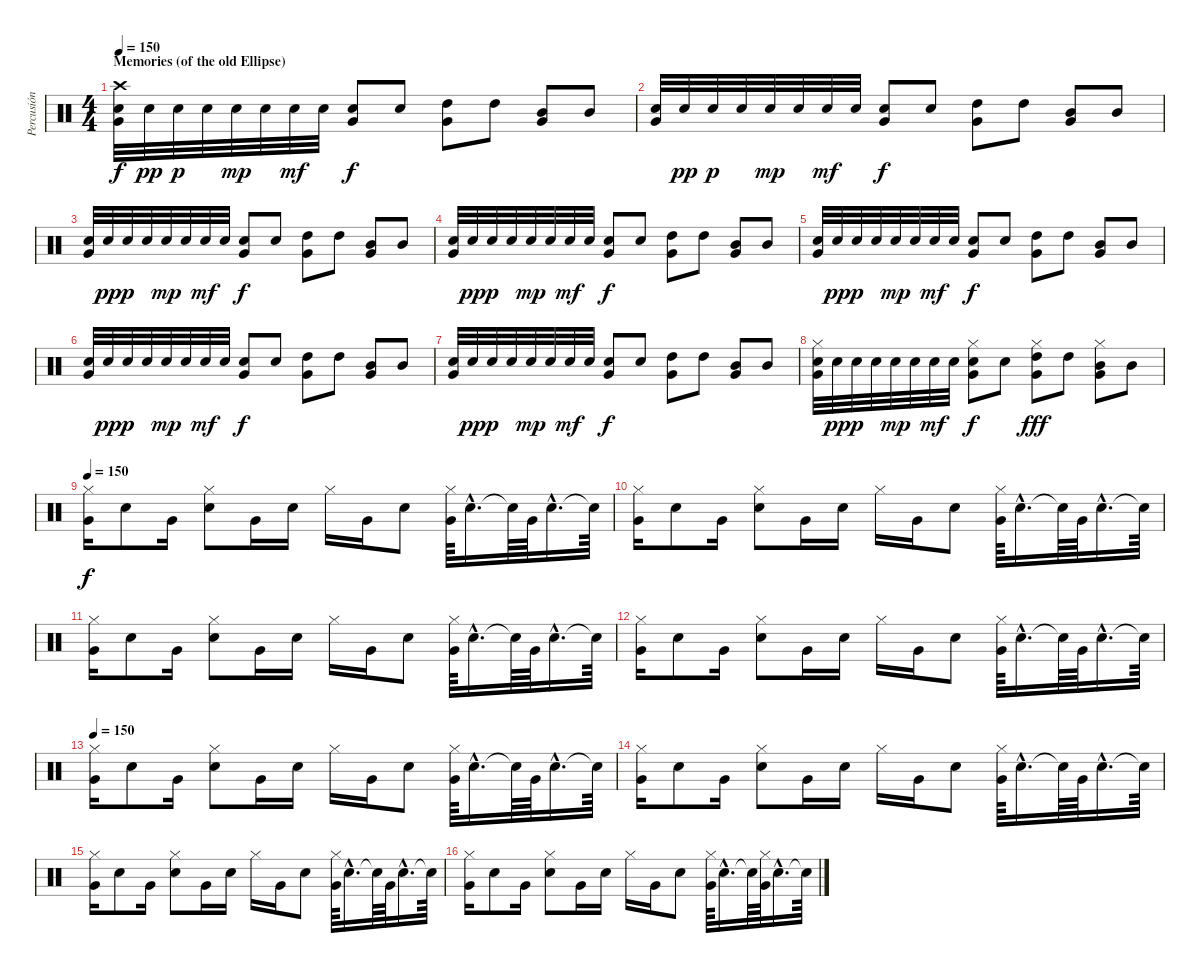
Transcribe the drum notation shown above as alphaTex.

\track ("Percusión" "Percusión") {instrument percussion}
\staff {score}
\articulation defaults
\ts (4 4)
\section ("" "Memories (of the old Ellipse)")
\tempo 150
\clef neutral
\ks c
("Crash high (hit)" "Electric Snare (hit)" "Very Low Tom (hit)").32{dy f} "Electric Snare (hit)".32{dy pp} "Electric Snare (hit)".32{dy p} "Electric Snare (hit)".32 "Electric Snare (hit)".32{dy mp} "Electric Snare (hit)".32 "Electric Snare (hit)".32{dy mf} "Electric Snare (hit)".32 ("Electric Snare (hit)" "Very Low Tom (hit)").8{dy f} "Electric Snare (hit)".8 ("High Tom (hit)" "Very Low Tom (hit)").8 "High Tom (hit)".8 ("Mid Tom (hit)" "Very Low Tom (hit)").8 "Mid Tom (hit)".8 |
("Electric Snare (hit)" "Very Low Tom (hit)").32 "Electric Snare (hit)".32{dy pp} "Electric Snare (hit)".32{dy p} "Electric Snare (hit)".32 "Electric Snare (hit)".32{dy mp} "Electric Snare (hit)".32 "Electric Snare (hit)".32{dy mf} "Electric Snare (hit)".32 ("Electric Snare (hit)" "Very Low Tom (hit)").8{dy f} "Electric Snare (hit)".8 ("High Tom (hit)" "Very Low Tom (hit)").8 "High Tom (hit)".8 ("Mid Tom (hit)" "Very Low Tom (hit)").8 "Mid Tom (hit)".8 |
("Electric Snare (hit)" "Very Low Tom (hit)").32 "Electric Snare (hit)".32{dy pp} "Electric Snare (hit)".32{dy p} "Electric Snare (hit)".32 "Electric Snare (hit)".32{dy mp} "Electric Snare (hit)".32 "Electric Snare (hit)".32{dy mf} "Electric Snare (hit)".32 ("Electric Snare (hit)" "Very Low Tom (hit)").8{dy f} "Electric Snare (hit)".8 ("High Tom (hit)" "Very Low Tom (hit)").8 "High Tom (hit)".8 ("Mid Tom (hit)" "Very Low Tom (hit)").8 "Mid Tom (hit)".8 |
("Electric Snare (hit)" "Very Low Tom (hit)").32 "Electric Snare (hit)".32{dy pp} "Electric Snare (hit)".32{dy p} "Electric Snare (hit)".32 "Electric Snare (hit)".32{dy mp} "Electric Snare (hit)".32 "Electric Snare (hit)".32{dy mf} "Electric Snare (hit)".32 ("Electric Snare (hit)" "Very Low Tom (hit)").8{dy f} "Electric Snare (hit)".8 ("High Tom (hit)" "Very Low Tom (hit)").8 "High Tom (hit)".8 ("Mid Tom (hit)" "Very Low Tom (hit)").8 "Mid Tom (hit)".8 |
("Electric Snare (hit)" "Very Low Tom (hit)").32 "Electric Snare (hit)".32{dy pp} "Electric Snare (hit)".32{dy p} "Electric Snare (hit)".32 "Electric Snare (hit)".32{dy mp} "Electric Snare (hit)".32 "Electric Snare (hit)".32{dy mf} "Electric Snare (hit)".32 ("Electric Snare (hit)" "Very Low Tom (hit)").8{dy f} "Electric Snare (hit)".8 ("High Tom (hit)" "Very Low Tom (hit)").8 "High Tom (hit)".8 ("Mid Tom (hit)" "Very Low Tom (hit)").8 "Mid Tom (hit)".8 |
("Electric Snare (hit)" "Very Low Tom (hit)").32 "Electric Snare (hit)".32{dy pp} "Electric Snare (hit)".32{dy p} "Electric Snare (hit)".32 "Electric Snare (hit)".32{dy mp} "Electric Snare (hit)".32 "Electric Snare (hit)".32{dy mf} "Electric Snare (hit)".32 ("Electric Snare (hit)" "Very Low Tom (hit)").8{dy f} "Electric Snare (hit)".8 ("High Tom (hit)" "Very Low Tom (hit)").8 "High Tom (hit)".8 ("Mid Tom (hit)" "Very Low Tom (hit)").8 "Mid Tom (hit)".8 |
("Electric Snare (hit)" "Very Low Tom (hit)").32 "Electric Snare (hit)".32{dy pp} "Electric Snare (hit)".32{dy p} "Electric Snare (hit)".32 "Electric Snare (hit)".32{dy mp} "Electric Snare (hit)".32 "Electric Snare (hit)".32{dy mf} "Electric Snare (hit)".32 ("Electric Snare (hit)" "Very Low Tom (hit)").8{dy f} "Electric Snare (hit)".8 ("High Tom (hit)" "Very Low Tom (hit)").8 "High Tom (hit)".8 ("Mid Tom (hit)" "Very Low Tom (hit)").8 "Mid Tom (hit)".8 |
("Hi-Hat (closed)" "Electric Snare (hit)" "Very Low Tom (hit)").32 "Electric Snare (hit)".32{dy pp} "Electric Snare (hit)".32{dy p} "Electric Snare (hit)".32 "Electric Snare (hit)".32{dy mp} "Electric Snare (hit)".32 "Electric Snare (hit)".32{dy mf} "Electric Snare (hit)".32 ("Hi-Hat (closed)" "Electric Snare (hit)" "Very Low Tom (hit)").8{dy f} "Electric Snare (hit)".8 ("Hi-Hat (closed)" "High Tom (hit)" "Very Low Tom (hit)").8{dy fff} "High Tom (hit)".8 ("Hi-Hat (closed)" "Mid Tom (hit)" "Very Low Tom (hit)").8 "Mid Tom (hit)".8 |
\tempo 150
("Hi-Hat (closed)" "Very Low Tom (hit)").16{dy f} "Electric Snare (hit)".8 "Very Low Tom (hit)".16 ("Hi-Hat (closed)" "Electric Snare (hit)").8 "Very Low Tom (hit)".16 "Electric Snare (hit)".16 "Hi-Hat (closed)".16 "Very Low Tom (hit)".16 "Electric Snare (hit)".8 ("Hi-Hat (closed)" "Very Low Tom (hit)").64 "Electric Snare (hit)"{hac}.16{d} "Snare (hit)"{t}.64 "Very Low Tom (hit)".64 "Electric Snare (hit)"{hac}.16{d} "Snare (hit)"{t}.64 |
("Hi-Hat (closed)" "Very Low Tom (hit)").16 "Electric Snare (hit)".8 "Very Low Tom (hit)".16 ("Hi-Hat (closed)" "Electric Snare (hit)").8 "Very Low Tom (hit)".16 "Electric Snare (hit)".16 "Hi-Hat (closed)".16 "Very Low Tom (hit)".16 "Electric Snare (hit)".8 ("Hi-Hat (closed)" "Very Low Tom (hit)").64 "Electric Snare (hit)"{hac}.16{d} "Snare (hit)"{t}.64 "Very Low Tom (hit)".64 "Electric Snare (hit)"{hac}.16{d} "Snare (hit)"{t}.64 |
("Hi-Hat (closed)" "Very Low Tom (hit)").16 "Electric Snare (hit)".8 "Very Low Tom (hit)".16 ("Hi-Hat (closed)" "Electric Snare (hit)").8 "Very Low Tom (hit)".16 "Electric Snare (hit)".16 "Hi-Hat (closed)".16 "Very Low Tom (hit)".16 "Electric Snare (hit)".8 ("Hi-Hat (closed)" "Very Low Tom (hit)").64 "Electric Snare (hit)"{hac}.16{d} "Snare (hit)"{t}.64 "Very Low Tom (hit)".64 "Electric Snare (hit)"{hac}.16{d} "Snare (hit)"{t}.64 |
("Hi-Hat (closed)" "Very Low Tom (hit)").16 "Electric Snare (hit)".8 "Very Low Tom (hit)".16 ("Hi-Hat (closed)" "Electric Snare (hit)").8 "Very Low Tom (hit)".16 "Electric Snare (hit)".16 "Hi-Hat (closed)".16 "Very Low Tom (hit)".16 "Electric Snare (hit)".8 ("Hi-Hat (closed)" "Very Low Tom (hit)").64 "Electric Snare (hit)"{hac}.16{d} "Snare (hit)"{t}.64 "Very Low Tom (hit)".64 "Electric Snare (hit)"{hac}.16{d} "Snare (hit)"{t}.64 |
\tempo 150
("Hi-Hat (closed)" "Very Low Tom (hit)").16 "Electric Snare (hit)".8 "Very Low Tom (hit)".16 ("Hi-Hat (closed)" "Electric Snare (hit)").8 "Very Low Tom (hit)".16 "Electric Snare (hit)".16 "Hi-Hat (closed)".16 "Very Low Tom (hit)".16 "Electric Snare (hit)".8 ("Hi-Hat (closed)" "Very Low Tom (hit)").64 "Electric Snare (hit)"{hac}.16{d} "Snare (hit)"{t}.64 "Very Low Tom (hit)".64 "Electric Snare (hit)"{hac}.16{d} "Snare (hit)"{t}.64 |
("Hi-Hat (closed)" "Very Low Tom (hit)").16 "Electric Snare (hit)".8 "Very Low Tom (hit)".16 ("Hi-Hat (closed)" "Electric Snare (hit)").8 "Very Low Tom (hit)".16 "Electric Snare (hit)".16 "Hi-Hat (closed)".16 "Very Low Tom (hit)".16 "Electric Snare (hit)".8 ("Hi-Hat (closed)" "Very Low Tom (hit)").64 "Electric Snare (hit)"{hac}.16{d} "Snare (hit)"{t}.64 "Very Low Tom (hit)".64 "Electric Snare (hit)"{hac}.16{d} "Snare (hit)"{t}.64 |
("Hi-Hat (closed)" "Very Low Tom (hit)").16 "Electric Snare (hit)".8 "Very Low Tom (hit)".16 ("Hi-Hat (closed)" "Electric Snare (hit)").8 "Very Low Tom (hit)".16 "Electric Snare (hit)".16 "Hi-Hat (closed)".16 "Very Low Tom (hit)".16 "Electric Snare (hit)".8 ("Hi-Hat (closed)" "Very Low Tom (hit)").64 "Electric Snare (hit)"{hac}.16{d} "Snare (hit)"{t}.64 "Very Low Tom (hit)".64 "Electric Snare (hit)"{hac}.16{d} "Snare (hit)"{t}.64 |
("Hi-Hat (closed)" "Very Low Tom (hit)").16 "Electric Snare (hit)".8 "Very Low Tom (hit)".16 ("Hi-Hat (closed)" "Electric Snare (hit)").8 "Very Low Tom (hit)".16 "Electric Snare (hit)".16 "Hi-Hat (closed)".16 "Very Low Tom (hit)".16 "Electric Snare (hit)".8 ("Hi-Hat (closed)" "Very Low Tom (hit)").64 "Electric Snare (hit)"{hac}.16{d} "Snare (hit)"{t}.64 ("Hi-Hat (closed)" "Very Low Tom (hit)").64 "Electric Snare (hit)"{hac}.16{d} "Snare (hit)"{t}.64
